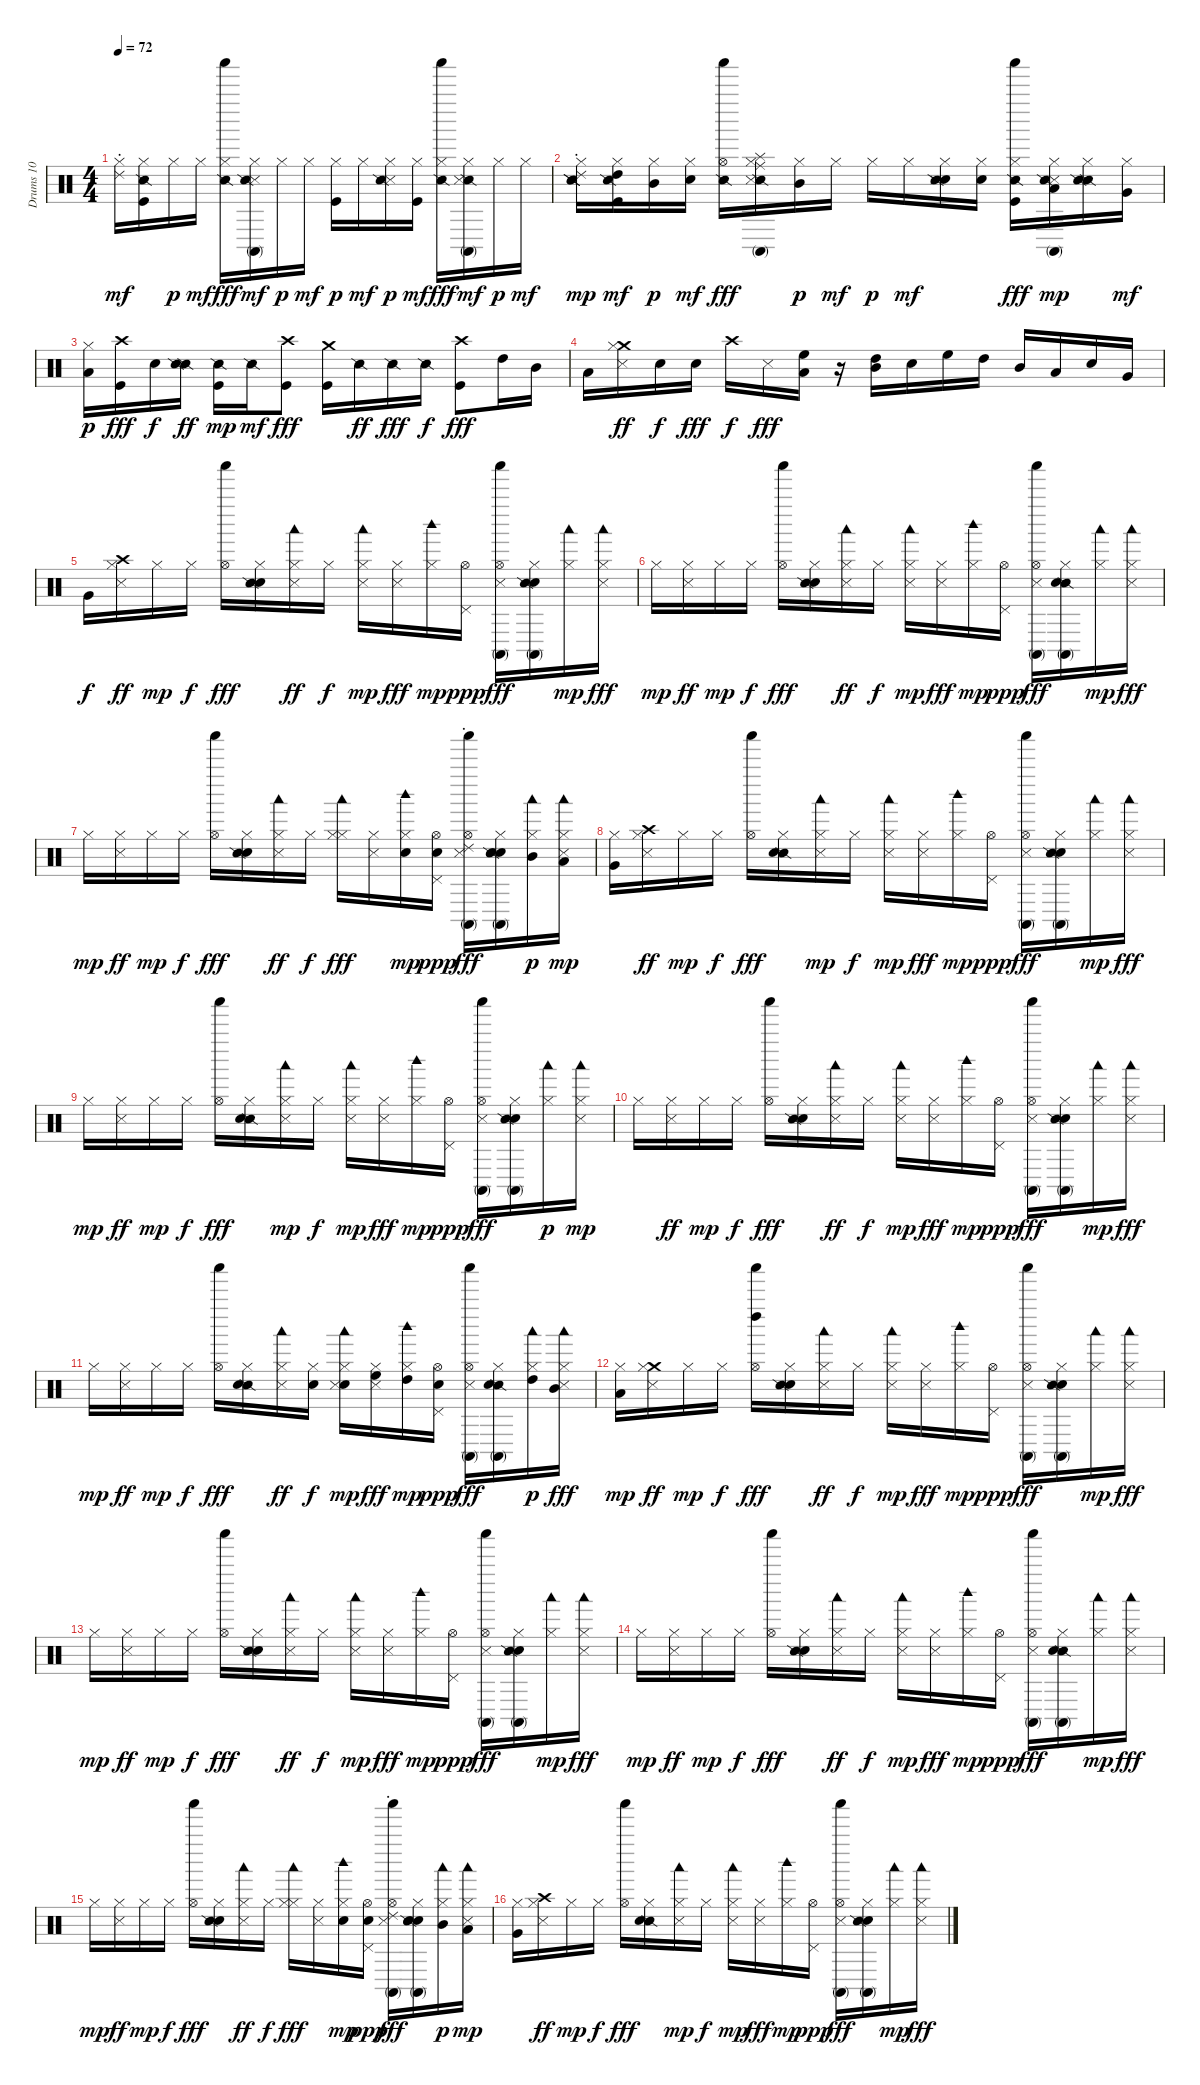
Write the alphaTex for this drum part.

\track ("Drums 10" "Drums 10") {instrument percussion}
\staff {score}
\articulation defaults
\ts (4 4)
\tempo 72
\clef neutral
\ks c
("Hi-Hat (closed)" "Ride (choke) 2").16{dy mf} ("Kick (hit)" "Snare (side stick) 2" "Hi-Hat (closed)").16 "Hi-Hat (closed)".16{dy p} "Hi-Hat (closed)".16{dy mf} ("Snare (side stick) 2" "Hi-Hat (closed)" "Shaker (hit)").16{dy fff} ("Conga high (mute)" "Snare (side stick) 3" "Snare (side stick) 2" "Hi-Hat (closed)").16{dy mf} "Hi-Hat (closed)".16{dy p} "Hi-Hat (closed)".16{dy mf} ("Kick (hit)" "Hi-Hat (closed)").16{dy p} "Hi-Hat (closed)".16{dy mf} ("Snare (side stick) 3" "Snare (side stick) 2" "Hi-Hat (closed)").16{dy p} ("Kick (hit)" "Hi-Hat (closed)").16{dy mf} ("Snare (side stick) 2" "Hi-Hat (closed)" "Shaker (hit)").16{dy fff} ("Conga high (mute)" "Snare (side stick) 2" "Snare (side stick) 3" "Hi-Hat (closed)").16{dy mf} "Hi-Hat (closed)".16{dy p} "Hi-Hat (closed)".16{dy mf} |
("Snare (side stick) 2" "Ride (choke) 2" "Hi-Hat (closed)" "Snare (side stick) 2").16{dy mp} ("High Tom (hit)" "Kick (hit)" "Hi-Hat (closed)" "Snare (side stick) 2").16{dy mf} ("Mid Tom (hit)" "Hi-Hat (closed)").16{dy p} ("Snare (hit) 2" "Hi-Hat (closed)").16{dy mf} ("Hi-Hat (open)" "Snare (side stick) 2" "Shaker (hit)").16{dy fff} ("Splash (hit)" "Ride (middle)" "Conga high (mute)" "Hi-Hat (closed)" "Snare (side stick) 2" "Snare (side stick) 3").16 ("Mid Tom (hit)" "Hi-Hat (closed)").16{dy p} "Hi-Hat (closed)".16{dy mf} "Hi-Hat (closed)".16{dy p} "Hi-Hat (closed)".16{dy mf} ("Metronome (bell)" "Hi-Hat (closed)" "Snare (side stick) 2" "Snare (side stick) 3").16 ("Metronome (bell)" "Hi-Hat (closed)").16 ("Kick (hit)" "Hi-Hat (closed)" "Snare (side stick) 2" "Shaker (hit)").16{dy fff} ("Low Tom (hit)" "Conga high (mute)" "Hi-Hat (closed)" "Snare (side stick) 3" "Snare (side stick) 2").16{dy mp} ("Snare (side stick) 2" "Hi-Hat (closed)" "Snare (side stick) 2").16 ("Very Low Tom (hit)" "Hi-Hat (closed)").16{dy mf} |
("Low Floor Tom (hit)" "Hi-Hat (closed)").16{dy p} ("Crash high (hit)" "Kick (hit)").16{dy fff} "Snare (hit) 2".16{dy f} ("Snare (side stick) 2" "Snare (side stick) 2").16{dy ff} ("Kick (hit)" "Snare (side stick) 2").16{dy mp} "Snare (side stick) 2".16{dy mf} ("Crash high (hit)" "Kick (hit)").8{dy fff} ("Crash medium (hit)" "Kick (hit)").16 "Snare (side stick) 2".16{dy ff} "Snare (side stick) 2".16{dy fff} "Snare (side stick) 2".16{dy f} ("Crash high (hit)" "Kick (hit)").8{dy fff} "High Tom (hit)".16 "Mid Tom (hit)".16 |
"Low Tom (hit)".16 ("Crash medium (hit)" "Hi-Hat (closed)" "Metronome (hit)").16{dy ff} "Electric Snare (hit)".16{dy f} "Electric Snare (hit)".16{dy fff} "Crash high (hit)".16{dy f} "Metronome (hit)".16{dy fff} ("Low Tom (hit)" "High Floor Tom (hit)").16 r.16 ("High Tom (hit)" "Mid Tom (hit)").16 "Electric Snare (hit)".16 "High Floor Tom (hit)".16 "High Tom (hit)".16 "Mid Tom (hit)".16 "Low Tom (hit)".16 "Electric Snare (hit)".16 "Very Low Tom (hit)".16 |
"Very Low Tom (hit)".16{dy f} ("Crash high (hit)" "Hi-Hat (closed)" "Metronome (hit)").16{dy ff} "Hi-Hat (closed)".16{dy mp} "Hi-Hat (closed)".16{dy f} ("Hi-Hat (open)" "Shaker (hit)").16{dy fff} ("Metronome (bell)" "Snare (side stick) 2" "Hi-Hat (closed)").16 ("Woodblock low (hit)" "Hi-Hat (closed)" "Metronome (hit)").16{dy ff} "Hi-Hat (closed)".16{dy f} ("Woodblock low (hit)" "Hi-Hat (closed)" "Metronome (hit)").16{dy mp} ("Hi-Hat (closed)" "Metronome (hit)").16{dy fff} ("Woodblock high (hit)" "Hi-Hat (closed)").16{dy mp} ("Hi-Hat (open)" "Pedal Hi-Hat (hit)").16{dy ppp} ("Conga high (mute)" "Hi-Hat (open)" "Metronome (hit)" "Shaker (hit)").16{dy fff} ("Metronome (bell)" "Conga high (mute)" "Snare (side stick) 2" "Hi-Hat (closed)").16 ("Woodblock low (hit)" "Hi-Hat (closed)").16{dy mp} ("Woodblock low (hit)" "Hi-Hat (closed)" "Metronome (hit)").16{dy fff} |
"Hi-Hat (closed)".16{dy mp} ("Hi-Hat (closed)" "Metronome (hit)").16{dy ff} "Hi-Hat (closed)".16{dy mp} "Hi-Hat (closed)".16{dy f} ("Hi-Hat (open)" "Shaker (hit)").16{dy fff} ("Metronome (bell)" "Hi-Hat (closed)" "Snare (side stick) 2").16 ("Woodblock low (hit)" "Hi-Hat (closed)" "Metronome (hit)").16{dy ff} "Hi-Hat (closed)".16{dy f} ("Metronome (hit)" "Hi-Hat (closed)" "Woodblock low (hit)").16{dy mp} ("Metronome (hit)" "Hi-Hat (closed)").16{dy fff} ("Woodblock high (hit)" "Hi-Hat (closed)").16{dy mp} ("Hi-Hat (open)" "Pedal Hi-Hat (hit)").16{dy ppp} ("Hi-Hat (open)" "Conga high (mute)" "Metronome (hit)" "Shaker (hit)").16{dy fff} ("Snare (side stick) 2" "Metronome (bell)" "Hi-Hat (closed)" "Conga high (mute)").16 ("Hi-Hat (closed)" "Woodblock low (hit)").16{dy mp} ("Hi-Hat (closed)" "Woodblock low (hit)" "Metronome (hit)").16{dy fff} |
"Hi-Hat (closed)".16{dy mp} ("Metronome (hit)" "Hi-Hat (closed)").16{dy ff} "Hi-Hat (closed)".16{dy mp} "Hi-Hat (closed)".16{dy f} ("Hi-Hat (open)" "Shaker (hit)").16{dy fff} ("Metronome (bell)" "Hi-Hat (closed)" "Snare (side stick) 2").16 ("Hi-Hat (closed)" "Woodblock low (hit)" "Metronome (hit)").16{dy ff} "Hi-Hat (closed)".16{dy f} ("Hi-Hat (closed)" "Woodblock low (hit)" "Hi-Hat (closed)").16{dy fff} ("Metronome (hit)" "Hi-Hat (closed)").16 ("Electric Snare (hit)" "Hi-Hat (closed)" "Woodblock high (hit)").16{dy mp} ("Electric Snare (hit)" "Hi-Hat (open)" "Pedal Hi-Hat (hit)").16{dy ppp} ("Ride (choke) 2" "Metronome (hit)" "Conga high (mute)" "Hi-Hat (open)" "Shaker (hit)").16{dy fff} ("Electric Snare (hit)" "Conga high (mute)" "Metronome (bell)" "Snare (side stick) 2" "Hi-Hat (closed)").16 ("Mid Tom (hit)" "Hi-Hat (closed)" "Woodblock low (hit)").16{dy p} ("Low Tom (hit)" "Metronome (hit)" "Woodblock low (hit)" "Hi-Hat (closed)").16{dy mp} |
("Very Low Tom (hit)" "Hi-Hat (closed)").16 ("Crash high (hit)" "Hi-Hat (closed)" "Metronome (hit)").16{dy ff} "Hi-Hat (closed)".16{dy mp} "Hi-Hat (closed)".16{dy f} ("Hi-Hat (open)" "Shaker (hit)").16{dy fff} ("Hi-Hat (closed)" "Snare (side stick) 2" "Metronome (bell)").16 ("Woodblock low (hit)" "Metronome (hit)" "Hi-Hat (closed)").16{dy mp} "Hi-Hat (closed)".16{dy f} ("Hi-Hat (closed)" "Woodblock low (hit)" "Metronome (hit)").16{dy mp} ("Metronome (hit)" "Hi-Hat (closed)").16{dy fff} ("Woodblock high (hit)" "Hi-Hat (closed)").16{dy mp} ("Hi-Hat (open)" "Pedal Hi-Hat (hit)").16{dy ppp} ("Metronome (hit)" "Conga high (mute)" "Hi-Hat (open)" "Shaker (hit)").16{dy fff} ("Metronome (bell)" "Hi-Hat (closed)" "Conga high (mute)" "Snare (side stick) 2").16 ("Woodblock low (hit)" "Hi-Hat (closed)").16{dy mp} ("Woodblock low (hit)" "Metronome (hit)" "Hi-Hat (closed)").16{dy fff} |
"Hi-Hat (closed)".16{dy mp} ("Metronome (hit)" "Hi-Hat (closed)").16{dy ff} "Hi-Hat (closed)".16{dy mp} "Hi-Hat (closed)".16{dy f} ("Hi-Hat (open)" "Shaker (hit)").16{dy fff} ("Snare (side stick) 2" "Hi-Hat (closed)" "Metronome (bell)").16 ("Metronome (hit)" "Hi-Hat (closed)" "Woodblock low (hit)").16{dy mp} "Hi-Hat (closed)".16{dy f} ("Woodblock low (hit)" "Hi-Hat (closed)" "Metronome (hit)").16{dy mp} ("Hi-Hat (closed)" "Metronome (hit)").16{dy fff} ("Woodblock high (hit)" "Hi-Hat (closed)").16{dy mp} ("Hi-Hat (open)" "Pedal Hi-Hat (hit)").16{dy ppp} ("Conga high (mute)" "Hi-Hat (open)" "Metronome (hit)" "Shaker (hit)").16{dy fff} ("Metronome (bell)" "Snare (side stick) 2" "Hi-Hat (closed)" "Conga high (mute)").16 ("Hi-Hat (closed)" "Woodblock low (hit)").16{dy p} ("Metronome (hit)" "Hi-Hat (closed)" "Woodblock low (hit)").16{dy mp} |
"Hi-Hat (closed)".16 ("Metronome (hit)" "Hi-Hat (closed)").16{dy ff} "Hi-Hat (closed)".16{dy mp} "Hi-Hat (closed)".16{dy f} ("Hi-Hat (open)" "Shaker (hit)").16{dy fff} ("Metronome (bell)" "Hi-Hat (closed)" "Snare (side stick) 2").16 ("Woodblock low (hit)" "Hi-Hat (closed)" "Metronome (hit)").16{dy ff} "Hi-Hat (closed)".16{dy f} ("Woodblock low (hit)" "Hi-Hat (closed)" "Metronome (hit)").16{dy mp} ("Hi-Hat (closed)" "Metronome (hit)").16{dy fff} ("Hi-Hat (closed)" "Woodblock high (hit)").16{dy mp} ("Hi-Hat (open)" "Pedal Hi-Hat (hit)").16{dy ppp} ("Conga high (mute)" "Metronome (hit)" "Hi-Hat (open)" "Shaker (hit)").16{dy fff} ("Metronome (bell)" "Conga high (mute)" "Snare (side stick) 2" "Hi-Hat (closed)").16 ("Woodblock low (hit)" "Hi-Hat (closed)").16{dy mp} ("Woodblock low (hit)" "Metronome (hit)" "Hi-Hat (closed)").16{dy fff} |
"Hi-Hat (closed)".16{dy mp} ("Metronome (hit)" "Hi-Hat (closed)").16{dy ff} "Hi-Hat (closed)".16{dy mp} "Hi-Hat (closed)".16{dy f} ("Hi-Hat (open)" "Shaker (hit)").16{dy fff} ("Snare (side stick) 2" "Hi-Hat (closed)" "Metronome (bell)").16 ("Hi-Hat (closed)" "Metronome (hit)" "Woodblock low (hit)").16{dy ff} ("Snare (hit) 2" "Hi-Hat (closed)").16{dy f} ("Snare (hit) 2" "Hi-Hat (closed)" "Metronome (hit)" "Woodblock low (hit)").16{dy mp} ("High Floor Tom (hit)" "Metronome (hit)" "Hi-Hat (closed)").16{dy fff} ("High Tom (hit)" "Hi-Hat (closed)" "Woodblock high (hit)").16{dy mp} ("Snare (hit) 2" "Hi-Hat (open)" "Pedal Hi-Hat (hit)").16{dy ppp} ("Conga high (mute)" "Metronome (hit)" "Hi-Hat (open)" "Shaker (hit)").16{dy fff} ("Snare (side stick) 2" "Metronome (bell)" "Conga high (mute)" "Hi-Hat (closed)").16 ("High Tom (hit)" "Hi-Hat (closed)" "Woodblock low (hit)").16{dy p} ("Mid Tom (hit)" "Hi-Hat (closed)" "Woodblock low (hit)" "Metronome (hit)").16{dy fff} |
("Hi-Hat (closed)" "Low Tom (hit)").16{dy mp} ("Crash medium (hit)" "Hi-Hat (closed)" "Metronome (hit)").16{dy ff} "Hi-Hat (closed)".16{dy mp} "Hi-Hat (closed)".16{dy f} ("Left Maraca (hit)" "Hi-Hat (open)" "Shaker (hit)").16{dy fff} ("Metronome (bell)" "Hi-Hat (closed)" "Snare (side stick) 2").16 ("Woodblock low (hit)" "Hi-Hat (closed)" "Metronome (hit)").16{dy ff} "Hi-Hat (closed)".16{dy f} ("Woodblock low (hit)" "Hi-Hat (closed)" "Metronome (hit)").16{dy mp} ("Hi-Hat (closed)" "Metronome (hit)").16{dy fff} ("Woodblock high (hit)" "Hi-Hat (closed)").16{dy mp} ("Hi-Hat (open)" "Pedal Hi-Hat (hit)").16{dy ppp} ("Hi-Hat (open)" "Metronome (hit)" "Conga high (mute)" "Shaker (hit)").16{dy fff} ("Metronome (bell)" "Conga high (mute)" "Hi-Hat (closed)" "Snare (side stick) 2").16 ("Woodblock low (hit)" "Hi-Hat (closed)").16{dy mp} ("Woodblock low (hit)" "Hi-Hat (closed)" "Metronome (hit)").16{dy fff} |
"Hi-Hat (closed)".16{dy mp} ("Hi-Hat (closed)" "Metronome (hit)").16{dy ff} "Hi-Hat (closed)".16{dy mp} "Hi-Hat (closed)".16{dy f} ("Hi-Hat (open)" "Shaker (hit)").16{dy fff} ("Metronome (bell)" "Snare (side stick) 2" "Hi-Hat (closed)").16 ("Woodblock low (hit)" "Hi-Hat (closed)" "Metronome (hit)").16{dy ff} "Hi-Hat (closed)".16{dy f} ("Woodblock low (hit)" "Hi-Hat (closed)" "Metronome (hit)").16{dy mp} ("Hi-Hat (closed)" "Metronome (hit)").16{dy fff} ("Woodblock high (hit)" "Hi-Hat (closed)").16{dy mp} ("Hi-Hat (open)" "Pedal Hi-Hat (hit)").16{dy ppp} ("Conga high (mute)" "Hi-Hat (open)" "Metronome (hit)" "Shaker (hit)").16{dy fff} ("Metronome (bell)" "Conga high (mute)" "Snare (side stick) 2" "Hi-Hat (closed)").16 ("Woodblock low (hit)" "Hi-Hat (closed)").16{dy mp} ("Woodblock low (hit)" "Hi-Hat (closed)" "Metronome (hit)").16{dy fff} |
"Hi-Hat (closed)".16{dy mp} ("Hi-Hat (closed)" "Metronome (hit)").16{dy ff} "Hi-Hat (closed)".16{dy mp} "Hi-Hat (closed)".16{dy f} ("Hi-Hat (open)" "Shaker (hit)").16{dy fff} ("Metronome (bell)" "Hi-Hat (closed)" "Snare (side stick) 2").16 ("Woodblock low (hit)" "Hi-Hat (closed)" "Metronome (hit)").16{dy ff} "Hi-Hat (closed)".16{dy f} ("Metronome (hit)" "Hi-Hat (closed)" "Woodblock low (hit)").16{dy mp} ("Metronome (hit)" "Hi-Hat (closed)").16{dy fff} ("Woodblock high (hit)" "Hi-Hat (closed)").16{dy mp} ("Hi-Hat (open)" "Pedal Hi-Hat (hit)").16{dy ppp} ("Hi-Hat (open)" "Conga high (mute)" "Metronome (hit)" "Shaker (hit)").16{dy fff} ("Snare (side stick) 2" "Metronome (bell)" "Hi-Hat (closed)" "Conga high (mute)").16 ("Hi-Hat (closed)" "Woodblock low (hit)").16{dy mp} ("Hi-Hat (closed)" "Woodblock low (hit)" "Metronome (hit)").16{dy fff} |
"Hi-Hat (closed)".16{dy mp} ("Metronome (hit)" "Hi-Hat (closed)").16{dy ff} "Hi-Hat (closed)".16{dy mp} "Hi-Hat (closed)".16{dy f} ("Hi-Hat (open)" "Shaker (hit)").16{dy fff} ("Metronome (bell)" "Hi-Hat (closed)" "Snare (side stick) 2").16 ("Hi-Hat (closed)" "Woodblock low (hit)" "Metronome (hit)").16{dy ff} "Hi-Hat (closed)".16{dy f} ("Hi-Hat (closed)" "Woodblock low (hit)" "Hi-Hat (closed)").16{dy fff} ("Metronome (hit)" "Hi-Hat (closed)").16 ("Electric Snare (hit)" "Hi-Hat (closed)" "Woodblock high (hit)").16{dy mp} ("Electric Snare (hit)" "Hi-Hat (open)" "Pedal Hi-Hat (hit)").16{dy ppp} ("Ride (choke) 2" "Metronome (hit)" "Conga high (mute)" "Hi-Hat (open)" "Shaker (hit)").16{dy fff} ("Electric Snare (hit)" "Conga high (mute)" "Metronome (bell)" "Snare (side stick) 2" "Hi-Hat (closed)").16 ("Mid Tom (hit)" "Hi-Hat (closed)" "Woodblock low (hit)").16{dy p} ("Low Tom (hit)" "Metronome (hit)" "Woodblock low (hit)" "Hi-Hat (closed)").16{dy mp} |
("Very Low Tom (hit)" "Hi-Hat (closed)").16 ("Crash high (hit)" "Hi-Hat (closed)" "Metronome (hit)").16{dy ff} "Hi-Hat (closed)".16{dy mp} "Hi-Hat (closed)".16{dy f} ("Hi-Hat (open)" "Shaker (hit)").16{dy fff} ("Hi-Hat (closed)" "Snare (side stick) 2" "Metronome (bell)").16 ("Woodblock low (hit)" "Metronome (hit)" "Hi-Hat (closed)").16{dy mp} "Hi-Hat (closed)".16{dy f} ("Hi-Hat (closed)" "Woodblock low (hit)" "Metronome (hit)").16{dy mp} ("Metronome (hit)" "Hi-Hat (closed)").16{dy fff} ("Woodblock high (hit)" "Hi-Hat (closed)").16{dy mp} ("Hi-Hat (open)" "Pedal Hi-Hat (hit)").16{dy ppp} ("Metronome (hit)" "Conga high (mute)" "Hi-Hat (open)" "Shaker (hit)").16{dy fff} ("Metronome (bell)" "Hi-Hat (closed)" "Conga high (mute)" "Snare (side stick) 2").16 ("Woodblock low (hit)" "Hi-Hat (closed)").16{dy mp} ("Woodblock low (hit)" "Metronome (hit)" "Hi-Hat (closed)").16{dy fff}
